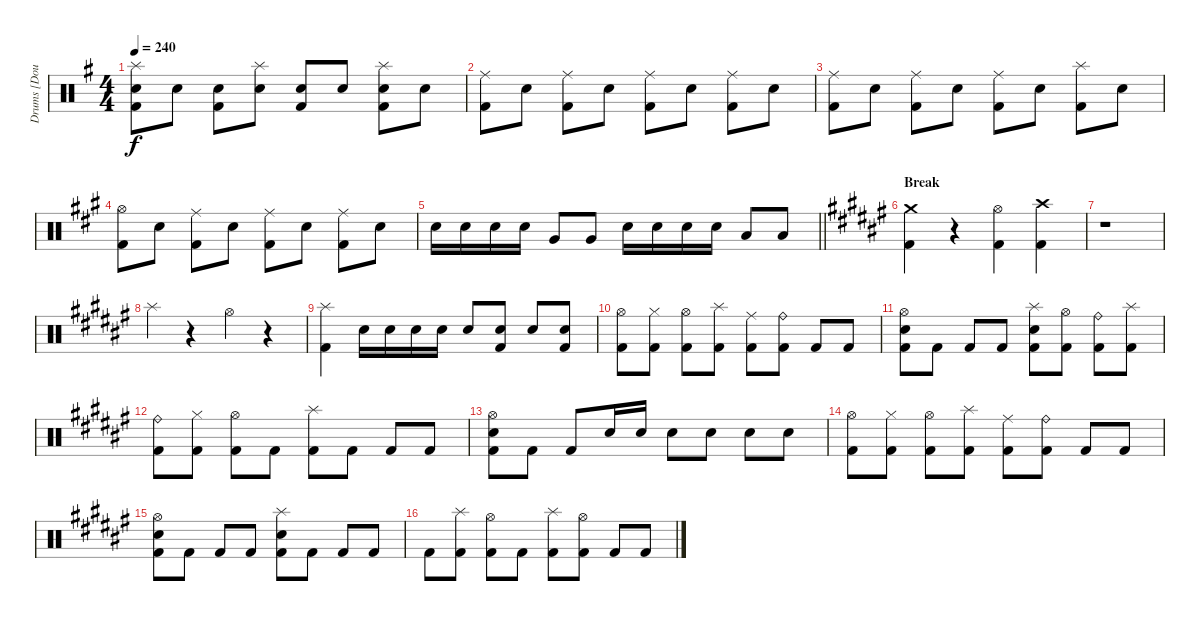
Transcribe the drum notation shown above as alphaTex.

\track ("Drums [Doug Anderson]" "Drums [Dou") {instrument percussion}
\staff {score}
\articulation defaults
\ts (4 4)
\tempo 240
\clef neutral
\ks eminor
("Splash (hit)" "Electric Snare (hit)" "Kick (hit) 2").8{dy f} "Electric Snare (hit)".8 ("Electric Snare (hit)" "Kick (hit) 2").8 ("Splash (hit)" "Electric Snare (hit)").8 ("Electric Snare (hit)" "Kick (hit) 2").8 "Electric Snare (hit)".8 ("Splash (hit)" "Electric Snare (hit)" "Kick (hit) 2").8 "Electric Snare (hit)".8 |
("Ride (middle)" "Kick (hit) 2").8 "Electric Snare (hit)".8 ("Ride (middle)" "Kick (hit) 2").8 "Electric Snare (hit)".8 ("Ride (middle)" "Kick (hit) 2").8 "Electric Snare (hit)".8 ("Ride (middle)" "Kick (hit) 2").8 "Electric Snare (hit)".8 |
("Ride (middle)" "Kick (hit) 2").8 "Electric Snare (hit)".8 ("Ride (middle)" "Kick (hit) 2").8 "Electric Snare (hit)".8 ("Ride (middle)" "Kick (hit) 2").8 "Electric Snare (hit)".8 ("Splash (hit)" "Kick (hit) 2").8 "Electric Snare (hit)".8 |
\ks f#minor
("Hi-Hat (open)" "Kick (hit) 2").8 "Electric Snare (hit)".8 ("Ride (middle)" "Kick (hit) 2").8 "Electric Snare (hit)".8 ("Ride (middle)" "Kick (hit) 2").8 "Electric Snare (hit)".8 ("Ride (middle)" "Kick (hit) 2").8 "Electric Snare (hit)".8 |
\barLineRight lightlight "Electric Snare (hit)".16 "Electric Snare (hit)".16 "Electric Snare (hit)".16 "Electric Snare (hit)".16 "Very Low Tom (hit)".8 "Very Low Tom (hit)".8 "Electric Snare (hit)".16 "Electric Snare (hit)".16 "Electric Snare (hit)".16 "Electric Snare (hit)".16 "Low Tom (hit)".8 "Low Tom (hit)".8
|
\section ("" "Break")
\ks f#
("Crash medium (hit)" "Kick (hit) 2").4 r.4 ("Hi-Hat (open)" "Kick (hit) 2").4 ("Crash high (hit)" "Kick (hit) 2").4 |
r.1 |
"Splash (hit)".4 r.4 "Hi-Hat (open)".4 r.4 |
("Splash (hit)" "Kick (hit) 2").4 "Electric Snare (hit)".16 "Electric Snare (hit)".16 "Electric Snare (hit)".16 "Electric Snare (hit)".16 "Electric Snare (hit)".8 ("Electric Snare (hit)" "Kick (hit) 2").8 "Electric Snare (hit)".8 ("Electric Snare (hit)" "Kick (hit) 2").8 |
("Hi-Hat (open)" "Kick (hit) 2").8 ("Hi-Hat (closed)" "Kick (hit) 2").8 ("Hi-Hat (open)" "Kick (hit) 2").8 ("Splash (hit)" "Kick (hit) 2").8 ("Ride (middle)" "Kick (hit) 2").8 ("Ride (bell)" "Kick (hit) 2").8 "Kick (hit) 2".8 "Kick (hit) 2".8 |
("Hi-Hat (open)" "Electric Snare (hit)" "Kick (hit) 2").8 "Kick (hit) 2".8 "Kick (hit) 2".8 "Kick (hit) 2".8 ("Splash (hit)" "Electric Snare (hit)" "Kick (hit) 2").8 ("Hi-Hat (open)" "Kick (hit) 2").8 ("Ride (bell)" "Kick (hit) 2").8 ("Splash (hit)" "Kick (hit) 2").8 |
("Ride (bell)" "Kick (hit) 2").8 ("Hi-Hat (closed)" "Kick (hit) 2").8 ("Hi-Hat (open)" "Kick (hit) 2").8 "Kick (hit) 2".8 ("Splash (hit)" "Kick (hit) 2").8 "Kick (hit) 2".8 "Kick (hit) 2".8 "Kick (hit) 2".8 |
("Hi-Hat (open)" "Electric Snare (hit)" "Kick (hit) 2").8 "Kick (hit) 2".8 "Kick (hit) 2".8 "Electric Snare (hit)".16 "Electric Snare (hit)".16 "Electric Snare (hit)".8 "Electric Snare (hit)".8 "Electric Snare (hit)".8 "Electric Snare (hit)".8 |
("Hi-Hat (open)" "Kick (hit) 2").8 ("Hi-Hat (closed)" "Kick (hit) 2").8 ("Hi-Hat (open)" "Kick (hit) 2").8 ("Splash (hit)" "Kick (hit) 2").8 ("Ride (middle)" "Kick (hit) 2").8 ("Ride (bell)" "Kick (hit) 2").8 "Kick (hit) 2".8 "Kick (hit) 2".8 |
("Hi-Hat (open)" "Electric Snare (hit)" "Kick (hit) 2").8 "Kick (hit) 2".8 "Kick (hit) 2".8 "Kick (hit) 2".8 ("Splash (hit)" "Electric Snare (hit)" "Kick (hit) 2").8 "Kick (hit) 2".8 "Kick (hit) 2".8 "Kick (hit) 2".8 |
"Kick (hit) 2".8 ("Splash (hit)" "Kick (hit) 2").8 ("Hi-Hat (open)" "Kick (hit) 2").8 "Kick (hit) 2".8 ("Splash (hit)" "Kick (hit) 2").8 ("Hi-Hat (open)" "Kick (hit) 2").8 "Kick (hit) 2".8 "Kick (hit) 2".8
